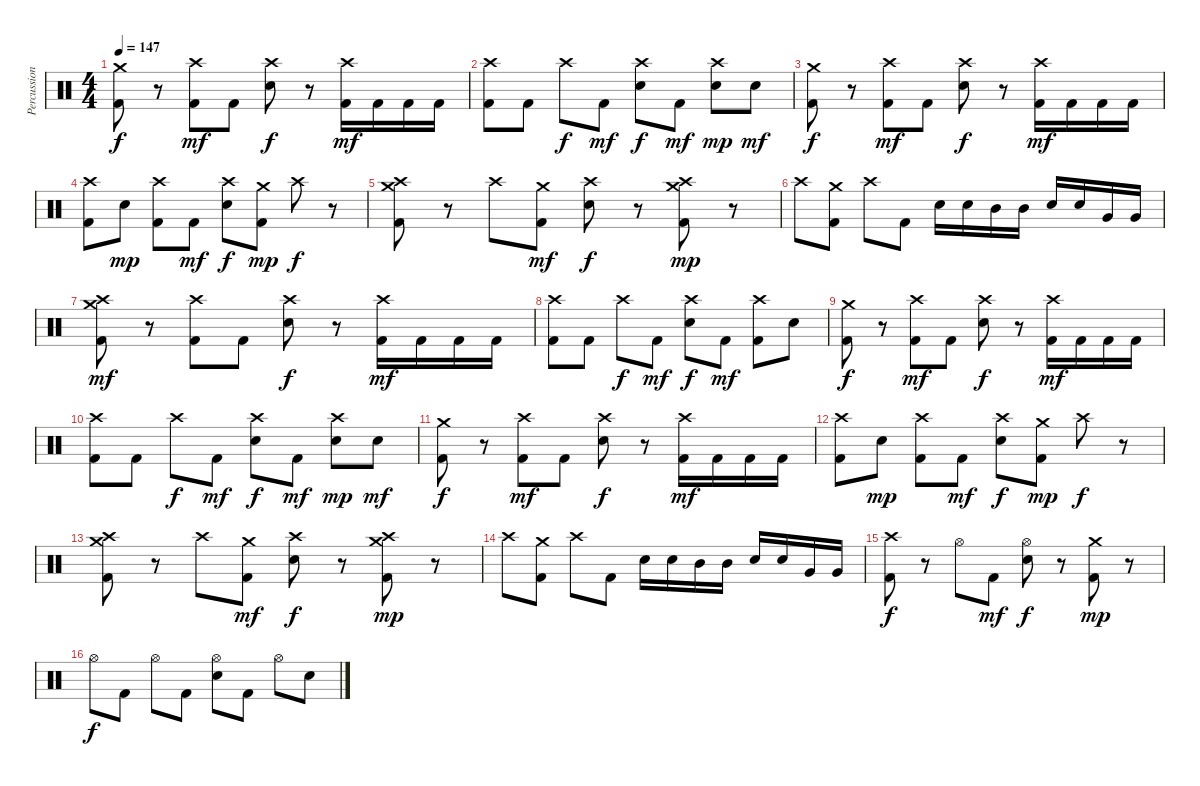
\track ("Percussion" "Percussion") {instrument percussion}
\staff {score}
\articulation defaults
\ts (4 4)
\tempo 147
\clef neutral
\ks c
("Kick (hit) 2" "Crash medium (hit)").8{dy f} r.8 ("Kick (hit) 2" "Crash high (hit)").8{dy mf} "Kick (hit) 2".8 ("Electric Snare (hit)" "Crash high (hit)").8{dy f} r.8 ("Kick (hit) 2" "Crash high (hit)").16{dy mf} "Kick (hit) 2".16 "Kick (hit) 2".16 "Kick (hit) 2".16 |
("Kick (hit) 2" "Crash high (hit)").8 "Kick (hit) 2".8 "Crash high (hit)".8{dy f} "Kick (hit) 2".8{dy mf} ("Electric Snare (hit)" "Crash high (hit)").8{dy f} "Kick (hit) 2".8{dy mf} ("Electric Snare (hit)" "Crash high (hit)").8{dy mp} "Electric Snare (hit)".8{dy mf} |
("Kick (hit) 2" "Crash medium (hit)").8{dy f} r.8 ("Kick (hit) 2" "Crash high (hit)").8{dy mf} "Kick (hit) 2".8 ("Electric Snare (hit)" "Crash high (hit)").8{dy f} r.8 ("Kick (hit) 2" "Crash high (hit)").16{dy mf} "Kick (hit) 2".16 "Kick (hit) 2".16 "Kick (hit) 2".16 |
("Kick (hit) 2" "Crash high (hit)").8 "Electric Snare (hit)".8{dy mp} ("Kick (hit) 2" "Crash high (hit)").8 "Kick (hit) 2".8{dy mf} ("Electric Snare (hit)" "Crash high (hit)").8{dy f} ("Kick (hit) 2" "Crash medium (hit)").8{dy mp} "Crash high (hit)".8{dy f} r.8 |
("Kick (hit) 2" "Crash medium (hit)" "Crash high (hit)").8 r.8 "Crash high (hit)".8 ("Kick (hit) 2" "Crash medium (hit)").8{dy mf} ("Electric Snare (hit)" "Crash high (hit)").8{dy f} r.8 ("Kick (hit) 2" "Crash medium (hit)" "Crash high (hit)").8{dy mp} r.8 |
"Crash high (hit)".8 ("Kick (hit) 2" "Crash medium (hit)").8 "Crash high (hit)".8 "Kick (hit) 2".8 "Electric Snare (hit)".16 "Electric Snare (hit)".16 "Mid Tom (hit)".16 "Mid Tom (hit)".16 "Electric Snare (hit)".16 "Electric Snare (hit)".16 "Very Low Tom (hit)".16 "Very Low Tom (hit)".16 |
("Kick (hit) 2" "Crash medium (hit)" "Crash high (hit)").8{dy mf} r.8 ("Kick (hit) 2" "Crash high (hit)").8 "Kick (hit) 2".8 ("Electric Snare (hit)" "Crash high (hit)").8{dy f} r.8 ("Kick (hit) 2" "Crash high (hit)").16{dy mf} "Kick (hit) 2".16 "Kick (hit) 2".16 "Kick (hit) 2".16 |
("Kick (hit) 2" "Crash high (hit)").8 "Kick (hit) 2".8 "Crash high (hit)".8{dy f} "Kick (hit) 2".8{dy mf} ("Electric Snare (hit)" "Crash high (hit)").8{dy f} "Kick (hit) 2".8{dy mf} ("Kick (hit) 2" "Crash high (hit)").8 "Electric Snare (hit)".8 |
("Kick (hit) 2" "Crash medium (hit)").8{dy f} r.8 ("Kick (hit) 2" "Crash high (hit)").8{dy mf} "Kick (hit) 2".8 ("Electric Snare (hit)" "Crash high (hit)").8{dy f} r.8 ("Kick (hit) 2" "Crash high (hit)").16{dy mf} "Kick (hit) 2".16 "Kick (hit) 2".16 "Kick (hit) 2".16 |
("Kick (hit) 2" "Crash high (hit)").8 "Kick (hit) 2".8 "Crash high (hit)".8{dy f} "Kick (hit) 2".8{dy mf} ("Electric Snare (hit)" "Crash high (hit)").8{dy f} "Kick (hit) 2".8{dy mf} ("Electric Snare (hit)" "Crash high (hit)").8{dy mp} "Electric Snare (hit)".8{dy mf} |
("Kick (hit) 2" "Crash medium (hit)").8{dy f} r.8 ("Kick (hit) 2" "Crash high (hit)").8{dy mf} "Kick (hit) 2".8 ("Electric Snare (hit)" "Crash high (hit)").8{dy f} r.8 ("Kick (hit) 2" "Crash high (hit)").16{dy mf} "Kick (hit) 2".16 "Kick (hit) 2".16 "Kick (hit) 2".16 |
("Kick (hit) 2" "Crash high (hit)").8 "Electric Snare (hit)".8{dy mp} ("Kick (hit) 2" "Crash high (hit)").8 "Kick (hit) 2".8{dy mf} ("Electric Snare (hit)" "Crash high (hit)").8{dy f} ("Kick (hit) 2" "Crash medium (hit)").8{dy mp} "Crash high (hit)".8{dy f} r.8 |
("Kick (hit) 2" "Crash medium (hit)" "Crash high (hit)").8 r.8 "Crash high (hit)".8 ("Kick (hit) 2" "Crash medium (hit)").8{dy mf} ("Electric Snare (hit)" "Crash high (hit)").8{dy f} r.8 ("Kick (hit) 2" "Crash medium (hit)" "Crash high (hit)").8{dy mp} r.8 |
"Crash high (hit)".8 ("Kick (hit) 2" "Crash medium (hit)").8 "Crash high (hit)".8 "Kick (hit) 2".8 "Electric Snare (hit)".16 "Electric Snare (hit)".16 "Mid Tom (hit)".16 "Mid Tom (hit)".16 "Electric Snare (hit)".16 "Electric Snare (hit)".16 "Very Low Tom (hit)".16 "Very Low Tom (hit)".16 |
("Kick (hit) 2" "Crash high (hit)").8{dy f} r.8 "Hi-Hat (open)".8 "Kick (hit) 2".8{dy mf} ("Electric Snare (hit)" "Hi-Hat (open)").8{dy f} r.8 ("Kick (hit) 2" "Crash medium (hit)").8{dy mp} r.8 |
"Hi-Hat (open)".8{dy f} "Kick (hit) 2".8 "Hi-Hat (open)".8 "Kick (hit) 2".8 ("Electric Snare (hit)" "Hi-Hat (open)").8 "Kick (hit) 2".8 "Hi-Hat (open)".8 "Electric Snare (hit)".8
